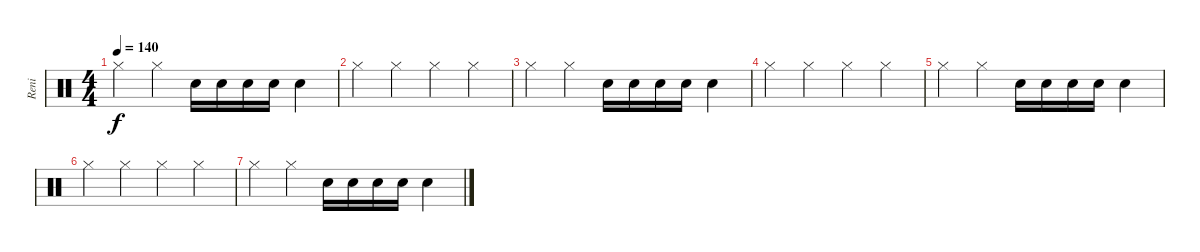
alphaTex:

\track ("Reni" "Reni") {instrument percussion}
\staff {score}
\articulation defaults
\ts (4 4)
\tempo 140
\clef neutral
\ks c "Hi-Hat (closed)".4{dy f balance 14} "Hi-Hat (closed)".4 "Snare (hit) 2".16 "Snare (hit) 2".16 "Snare (hit) 2".16 "Snare (hit) 2".16 "Snare (hit) 2".4
|
"Hi-Hat (closed)".4 "Hi-Hat (closed)".4 "Hi-Hat (closed)".4 "Hi-Hat (closed)".4 |
"Hi-Hat (closed)".4{balance 14} "Hi-Hat (closed)".4 "Snare (hit) 2".16 "Snare (hit) 2".16 "Snare (hit) 2".16 "Snare (hit) 2".16 "Snare (hit) 2".4 |
"Hi-Hat (closed)".4 "Hi-Hat (closed)".4 "Hi-Hat (closed)".4 "Hi-Hat (closed)".4 |
"Hi-Hat (closed)".4{balance 14} "Hi-Hat (closed)".4 "Snare (hit) 2".16 "Snare (hit) 2".16 "Snare (hit) 2".16 "Snare (hit) 2".16 "Snare (hit) 2".4 |
"Hi-Hat (closed)".4 "Hi-Hat (closed)".4 "Hi-Hat (closed)".4 "Hi-Hat (closed)".4 |
"Hi-Hat (closed)".4{balance 14} "Hi-Hat (closed)".4 "Snare (hit) 2".16 "Snare (hit) 2".16 "Snare (hit) 2".16 "Snare (hit) 2".16 "Snare (hit) 2".4
